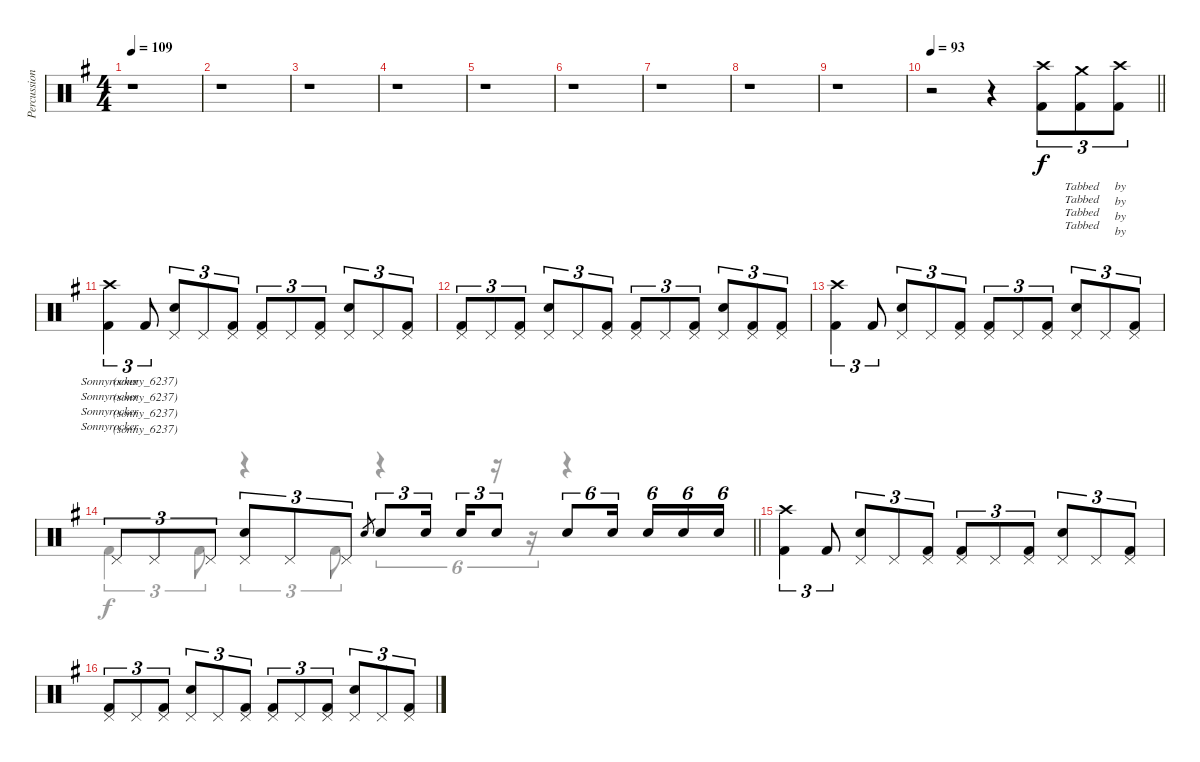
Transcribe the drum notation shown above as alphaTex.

\track ("Percussion" "Percussion") {instrument percussion}
\staff {score}
\articulation defaults
\voice
\ts (4 4)
\tempo 109
\clef neutral
\ks g
r.1{dy f} |
r.1 |
r.1 |
r.1 |
r.1 |
r.1 |
r.1 |
r.1 |
r.1 |
\tempo 93
\barLineRight lightlight
r.2 r.4 ("Crash high (hit)" "Kick (hit) 2").8{tu (3 2) lyrics (0 "") lyrics (1 "") lyrics (2 "") lyrics (3 "") lyrics (4 "")} ("Crash medium (hit)" "Kick (hit) 2").8{tu (3 2) lyrics (0 "") lyrics (1 "Tabbed") lyrics (2 "Tabbed") lyrics (3 "Tabbed") lyrics (4 "Tabbed")} ("Crash high (hit)" "Kick (hit) 2").8{tu (3 2) lyrics (0 "") lyrics (1 "by") lyrics (2 "by") lyrics (3 "by") lyrics (4 "by")} |
("Crash high (hit)" "Kick (hit) 2").4{tu (3 2) lyrics (0 "") lyrics (1 "Sonnyrocker") lyrics (2 "Sonnyrocker") lyrics (3 "Sonnyrocker") lyrics (4 "Sonnyrocker")} "Kick (hit) 2".8{tu (3 2) lyrics (0 "") lyrics (1 "(sonny_6237)") lyrics (2 "(sonny_6237)") lyrics (3 "(sonny_6237)") lyrics (4 "(sonny_6237)")} ("Pedal Hi-Hat (hit)" "Electric Snare (hit)").8{tu (3 2) beam Up} "Pedal Hi-Hat (hit)".8{tu (3 2) beam Up} ("Pedal Hi-Hat (hit)" "Kick (hit) 2").8{tu (3 2) beam Up} ("Pedal Hi-Hat (hit)" "Kick (hit) 2").8{tu (3 2) beam Up} "Pedal Hi-Hat (hit)".8{tu (3 2)} ("Pedal Hi-Hat (hit)" "Kick (hit) 2").8{tu (3 2)} ("Pedal Hi-Hat (hit)" "Electric Snare (hit)").8{tu (3 2)} "Pedal Hi-Hat (hit)".8{tu (3 2)} ("Pedal Hi-Hat (hit)" "Kick (hit) 2").8{tu (3 2)} |
("Pedal Hi-Hat (hit)" "Kick (hit) 2").8{tu (3 2)} "Pedal Hi-Hat (hit)".8{tu (3 2)} ("Pedal Hi-Hat (hit)" "Kick (hit) 2").8{tu (3 2)} ("Pedal Hi-Hat (hit)" "Electric Snare (hit)").8{tu (3 2) beam Up} "Pedal Hi-Hat (hit)".8{tu (3 2) beam Up} ("Pedal Hi-Hat (hit)" "Kick (hit) 2").8{tu (3 2) beam Up} ("Pedal Hi-Hat (hit)" "Kick (hit) 2").8{tu (3 2) beam Up} "Pedal Hi-Hat (hit)".8{tu (3 2)} ("Pedal Hi-Hat (hit)" "Kick (hit) 2").8{tu (3 2)} ("Pedal Hi-Hat (hit)" "Electric Snare (hit)").8{tu (3 2)} ("Pedal Hi-Hat (hit)" "Kick (hit) 2").8{tu (3 2)} ("Pedal Hi-Hat (hit)" "Kick (hit) 2").8{tu (3 2)} |
("Crash high (hit)" "Kick (hit) 2").4{tu (3 2)} "Kick (hit) 2".8{tu (3 2)} ("Pedal Hi-Hat (hit)" "Electric Snare (hit)").8{tu (3 2) beam Up} "Pedal Hi-Hat (hit)".8{tu (3 2) beam Up} ("Pedal Hi-Hat (hit)" "Kick (hit) 2").8{tu (3 2) beam Up} ("Pedal Hi-Hat (hit)" "Kick (hit) 2").8{tu (3 2) beam Up} "Pedal Hi-Hat (hit)".8{tu (3 2)} ("Pedal Hi-Hat (hit)" "Kick (hit) 2").8{tu (3 2)} ("Pedal Hi-Hat (hit)" "Electric Snare (hit)").8{tu (3 2)} "Pedal Hi-Hat (hit)".8{tu (3 2)} ("Pedal Hi-Hat (hit)" "Kick (hit) 2").8{tu (3 2)} |
\barLineRight lightlight "Pedal Hi-Hat (hit)".8{tu (3 2)} "Pedal Hi-Hat (hit)".8{tu (3 2)} "Pedal Hi-Hat (hit)".8{tu (3 2)}
("Pedal Hi-Hat (hit)" "Electric Snare (hit)").8{tu (3 2)} "Pedal Hi-Hat (hit)".8{tu (3 2)} "Pedal Hi-Hat (hit)".8{tu (3 2)} "Electric Snare (hit)".8{gr} "Electric Snare (hit)".8{tu (3 2) beam Up} "Electric Snare (hit)".16{tu (3 2) beam Up beam splitsecondary} "Electric Snare (hit)".16{tu (3 2) beam Up beam merge} "Electric Snare (hit)".8{tu (3 2) beam Up} "Electric Snare (hit)".8{tu (6 4) beam Up beam merge} "Electric Snare (hit)".16{tu (6 4) beam splitsecondary} "Electric Snare (hit)".16{tu (6 4)} "Electric Snare (hit)".16{tu (6 4) beam merge} "Electric Snare (hit)".16{tu (6 4)} |
("Crash high (hit)" "Kick (hit) 2").4{tu (3 2)} "Kick (hit) 2".8{tu (3 2)} ("Pedal Hi-Hat (hit)" "Electric Snare (hit)").8{tu (3 2) beam Up} "Pedal Hi-Hat (hit)".8{tu (3 2) beam Up} ("Pedal Hi-Hat (hit)" "Kick (hit) 2").8{tu (3 2) beam Up} ("Pedal Hi-Hat (hit)" "Kick (hit) 2").8{tu (3 2) beam Up} "Pedal Hi-Hat (hit)".8{tu (3 2)} ("Pedal Hi-Hat (hit)" "Kick (hit) 2").8{tu (3 2)} ("Pedal Hi-Hat (hit)" "Electric Snare (hit)").8{tu (3 2)} "Pedal Hi-Hat (hit)".8{tu (3 2)} ("Pedal Hi-Hat (hit)" "Kick (hit) 2").8{tu (3 2)} |
("Pedal Hi-Hat (hit)" "Kick (hit) 2").8{tu (3 2)} "Pedal Hi-Hat (hit)".8{tu (3 2)} ("Pedal Hi-Hat (hit)" "Kick (hit) 2").8{tu (3 2)} ("Pedal Hi-Hat (hit)" "Electric Snare (hit)").8{tu (3 2) beam Up} "Pedal Hi-Hat (hit)".8{tu (3 2) beam Up} ("Pedal Hi-Hat (hit)" "Kick (hit) 2").8{tu (3 2) beam Up} ("Pedal Hi-Hat (hit)" "Kick (hit) 2").8{tu (3 2) beam Up} "Pedal Hi-Hat (hit)".8{tu (3 2)} ("Pedal Hi-Hat (hit)" "Kick (hit) 2").8{tu (3 2)} ("Pedal Hi-Hat (hit)" "Electric Snare (hit)").8{tu (3 2)} "Pedal Hi-Hat (hit)".8{tu (3 2)} ("Pedal Hi-Hat (hit)" "Kick (hit) 2").8{tu (3 2)}
\voice
\clef neutral
\ottava regular
\simile none
\ks g
|
|
|
|
|
|
|
|
|
\barLineRight lightlight
|
|
|
|
\barLineRight lightlight "Kick (hit) 2".4{tu (3 2)} "Kick (hit) 2".8{tu (3 2)}
r.4{tu (3 2)} "Kick (hit) 2".8{tu (3 2)} r.4{tu (6 4)} r.16{tu (6 4)} r.16{tu (6 4)} r.4 |
|
